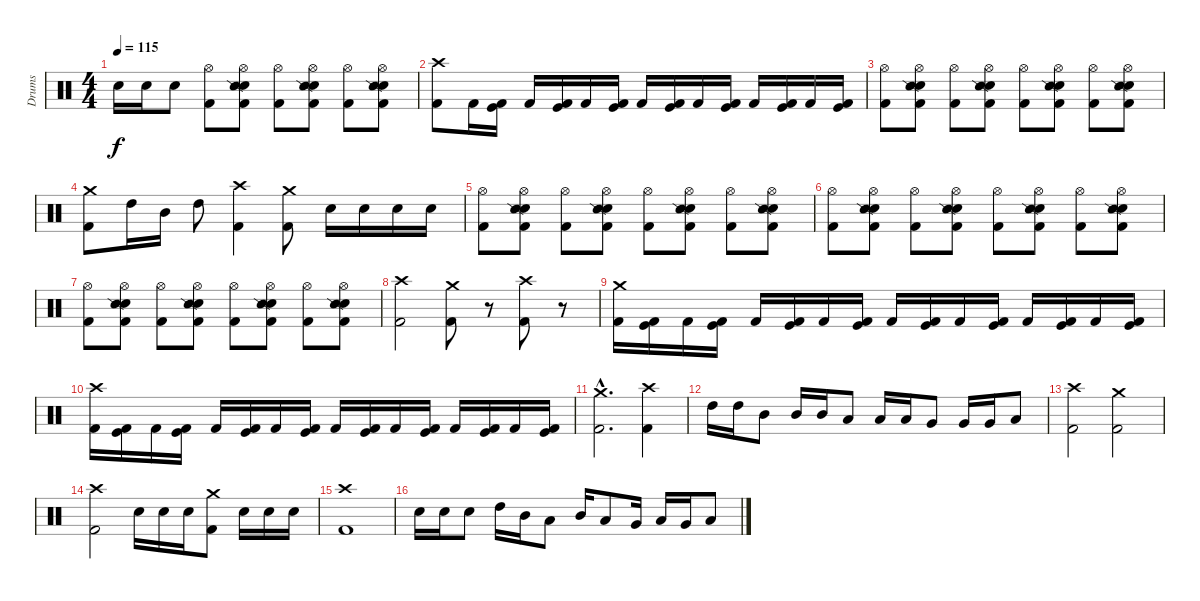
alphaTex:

\track ("Drums" "Drums") {instrument percussion}
\staff {score}
\articulation defaults
\ts (4 4)
\tempo 115
\clef neutral
\ks c "Electric Snare (hit)".16{dy f} "Electric Snare (hit)".16 "Electric Snare (hit)".8
("Hi-Hat (open)" "Kick (hit) 2").8 ("Hi-Hat (open)" "Electric Snare (hit)" "Snare (side stick) 2" "Kick (hit) 2").8 ("Hi-Hat (open)" "Kick (hit) 2").8 ("Hi-Hat (open)" "Electric Snare (hit)" "Snare (side stick) 2" "Kick (hit) 2").8 ("Hi-Hat (open)" "Kick (hit) 2").8 ("Hi-Hat (open)" "Electric Snare (hit)" "Snare (side stick) 2" "Kick (hit) 2").8 |
("Crash high (hit)" "Kick (hit) 2").8 "Kick (hit) 2".16 ("Kick (hit)" "Kick (hit) 2").16 "Kick (hit) 2".16 ("Kick (hit)" "Kick (hit) 2").16 "Kick (hit) 2".16 ("Kick (hit)" "Kick (hit) 2").16 "Kick (hit) 2".16 ("Kick (hit)" "Kick (hit) 2").16 "Kick (hit) 2".16 ("Kick (hit)" "Kick (hit) 2").16 "Kick (hit) 2".16 ("Kick (hit)" "Kick (hit) 2").16 "Kick (hit) 2".16 ("Kick (hit)" "Kick (hit) 2").16 |
("Hi-Hat (open)" "Kick (hit) 2").8 ("Hi-Hat (open)" "Electric Snare (hit)" "Snare (side stick) 2" "Kick (hit) 2").8 ("Hi-Hat (open)" "Kick (hit) 2").8 ("Hi-Hat (open)" "Electric Snare (hit)" "Snare (side stick) 2" "Kick (hit) 2").8 ("Hi-Hat (open)" "Kick (hit) 2").8 ("Hi-Hat (open)" "Electric Snare (hit)" "Snare (side stick) 2" "Kick (hit) 2").8 ("Hi-Hat (open)" "Kick (hit) 2").8 ("Hi-Hat (open)" "Electric Snare (hit)" "Snare (side stick) 2" "Kick (hit) 2").8 |
("Crash medium (hit)" "Kick (hit) 2").8 "High Tom (hit)".16 "Mid Tom (hit)".16 "High Tom (hit)".8 ("Crash high (hit)" "Kick (hit) 2").4 ("Crash medium (hit)" "Kick (hit) 2").8 "Electric Snare (hit)".16 "Electric Snare (hit)".16 "Electric Snare (hit)".16 "Electric Snare (hit)".16 |
("Hi-Hat (open)" "Kick (hit) 2").8 ("Hi-Hat (open)" "Electric Snare (hit)" "Snare (side stick) 2" "Kick (hit) 2").8 ("Hi-Hat (open)" "Kick (hit) 2").8 ("Hi-Hat (open)" "Electric Snare (hit)" "Snare (side stick) 2" "Kick (hit) 2").8 ("Hi-Hat (open)" "Kick (hit) 2").8 ("Hi-Hat (open)" "Electric Snare (hit)" "Snare (side stick) 2" "Kick (hit) 2").8 ("Hi-Hat (open)" "Kick (hit) 2").8 ("Hi-Hat (open)" "Electric Snare (hit)" "Snare (side stick) 2" "Kick (hit) 2").8 |
("Hi-Hat (open)" "Kick (hit) 2").8 ("Hi-Hat (open)" "Electric Snare (hit)" "Snare (side stick) 2" "Kick (hit) 2").8 ("Hi-Hat (open)" "Kick (hit) 2").8 ("Hi-Hat (open)" "Electric Snare (hit)" "Snare (side stick) 2" "Kick (hit) 2").8 ("Hi-Hat (open)" "Kick (hit) 2").8 ("Hi-Hat (open)" "Electric Snare (hit)" "Snare (side stick) 2" "Kick (hit) 2").8 ("Hi-Hat (open)" "Kick (hit) 2").8 ("Hi-Hat (open)" "Electric Snare (hit)" "Snare (side stick) 2" "Kick (hit) 2").8 |
("Hi-Hat (open)" "Kick (hit) 2").8 ("Hi-Hat (open)" "Electric Snare (hit)" "Snare (side stick) 2" "Kick (hit) 2").8 ("Hi-Hat (open)" "Kick (hit) 2").8 ("Hi-Hat (open)" "Electric Snare (hit)" "Snare (side stick) 2" "Kick (hit) 2").8 ("Hi-Hat (open)" "Kick (hit) 2").8 ("Hi-Hat (open)" "Electric Snare (hit)" "Snare (side stick) 2" "Kick (hit) 2").8 ("Hi-Hat (open)" "Kick (hit) 2").8 ("Hi-Hat (open)" "Electric Snare (hit)" "Snare (side stick) 2" "Kick (hit) 2").8 |
("Crash high (hit)" "Kick (hit) 2").2 ("Crash medium (hit)" "Kick (hit) 2").8 r.8 ("Crash high (hit)" "Kick (hit) 2").8 r.8 |
("Crash medium (hit)" "Kick (hit) 2").16 ("Kick (hit)" "Kick (hit) 2").16 "Kick (hit) 2".16 ("Kick (hit)" "Kick (hit) 2").16 "Kick (hit) 2".16 ("Kick (hit)" "Kick (hit) 2").16 "Kick (hit) 2".16 ("Kick (hit)" "Kick (hit) 2").16 "Kick (hit) 2".16 ("Kick (hit)" "Kick (hit) 2").16 "Kick (hit) 2".16 ("Kick (hit)" "Kick (hit) 2").16 "Kick (hit) 2".16 ("Kick (hit)" "Kick (hit) 2").16 "Kick (hit) 2".16 ("Kick (hit)" "Kick (hit) 2").16 |
("Crash high (hit)" "Kick (hit) 2").16 ("Kick (hit)" "Kick (hit) 2").16 "Kick (hit) 2".16 ("Kick (hit)" "Kick (hit) 2").16 "Kick (hit) 2".16 ("Kick (hit)" "Kick (hit) 2").16 "Kick (hit) 2".16 ("Kick (hit)" "Kick (hit) 2").16 "Kick (hit) 2".16 ("Kick (hit)" "Kick (hit) 2").16 "Kick (hit) 2".16 ("Kick (hit)" "Kick (hit) 2").16 "Kick (hit) 2".16 ("Kick (hit)" "Kick (hit) 2").16 "Kick (hit) 2".16 ("Kick (hit)" "Kick (hit) 2").16 |
("Crash medium (hit)"{hac} "Kick (hit) 2"{hac}).2{d} ("Crash high (hit)" "Kick (hit) 2").4 |
"High Tom (hit)".16 "High Tom (hit)".16 "Mid Tom (hit)".8 "Mid Tom (hit)".16 "Mid Tom (hit)".16 "Low Tom (hit)".8 "Low Tom (hit)".16 "Low Tom (hit)".16 "Very Low Tom (hit)".8 "Very Low Tom (hit)".16 "Very Low Tom (hit)".16 "Low Floor Tom (hit)".8 |
("Crash high (hit)" "Kick (hit) 2").2 ("Crash medium (hit)" "Kick (hit) 2").2 |
("Crash high (hit)" "Kick (hit) 2").2 "Electric Snare (hit)".16 "Electric Snare (hit)".16 "Electric Snare (hit)".16 ("Crash medium (hit)" "Kick (hit) 2").8 "Electric Snare (hit)".16 "Electric Snare (hit)".16 "Electric Snare (hit)".16 |
("Crash high (hit)" "Kick (hit) 2").1 |
"Electric Snare (hit)".16 "Electric Snare (hit)".16 "Electric Snare (hit)".8 "High Tom (hit)".16 "Mid Tom (hit)".16 "Low Tom (hit)".8 "Mid Tom (hit)".16 "Low Tom (hit)".8 "Very Low Tom (hit)".16 "Low Tom (hit)".16 "Very Low Tom (hit)".16 "Low Floor Tom (hit)".8
